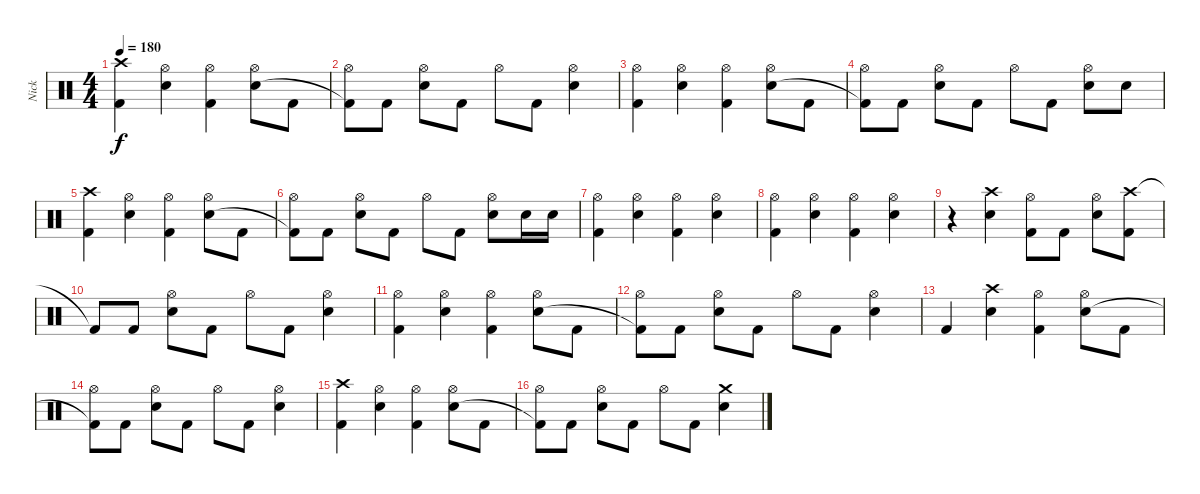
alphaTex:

\track ("Nick" "Nick") {instrument percussion}
\staff {score}
\articulation defaults
\ts (4 4)
\tempo 180
\clef neutral
\ks c
("Crash high (hit)" "Kick (hit) 2").4{dy f} ("Hi-Hat (open)" "Snare (hit) 2").4 ("Hi-Hat (open)" "Kick (hit) 2").4 ("Hi-Hat (open)" "Snare (hit) 2").8 "Kick (hit) 2".8 |
("Hi-Hat (open)" "Kick (hit) 2"{t}).8 "Kick (hit) 2".8 ("Hi-Hat (open)" "Snare (hit) 2").8 "Kick (hit) 2".8 "Hi-Hat (open)".8 "Kick (hit) 2".8 ("Hi-Hat (open)" "Snare (hit) 2").4 |
("Hi-Hat (open)" "Kick (hit) 2").4 ("Hi-Hat (open)" "Snare (hit) 2").4 ("Hi-Hat (open)" "Kick (hit) 2").4 ("Hi-Hat (open)" "Snare (hit) 2").8 "Kick (hit) 2".8 |
("Hi-Hat (open)" "Kick (hit) 2"{t}).8 "Kick (hit) 2".8 ("Hi-Hat (open)" "Snare (hit) 2").8 "Kick (hit) 2".8 "Hi-Hat (open)".8 "Kick (hit) 2".8 ("Hi-Hat (open)" "Snare (hit) 2").8 "Snare (hit) 2".8 |
("Crash high (hit)" "Kick (hit) 2").4 ("Hi-Hat (open)" "Snare (hit) 2").4 ("Hi-Hat (open)" "Kick (hit) 2").4 ("Hi-Hat (open)" "Snare (hit) 2").8 "Kick (hit) 2".8 |
("Hi-Hat (open)" "Kick (hit) 2"{t}).8 "Kick (hit) 2".8 ("Hi-Hat (open)" "Snare (hit) 2").8 "Kick (hit) 2".8 "Hi-Hat (open)".8 "Kick (hit) 2".8 ("Hi-Hat (open)" "Snare (hit) 2").8 "Snare (hit) 2".16 "Snare (hit) 2".16 |
("Hi-Hat (open)" "Kick (hit) 2").4 ("Hi-Hat (open)" "Snare (hit) 2").4 ("Hi-Hat (open)" "Kick (hit) 2").4 ("Hi-Hat (open)" "Snare (hit) 2").4 |
("Hi-Hat (open)" "Kick (hit) 2").4 ("Hi-Hat (open)" "Snare (hit) 2").4 ("Hi-Hat (open)" "Kick (hit) 2").4 ("Hi-Hat (open)" "Snare (hit) 2").4 |
r.4 ("Crash high (hit)" "Snare (hit) 2").4 ("Hi-Hat (open)" "Kick (hit) 2").8 "Kick (hit) 2".8 ("Hi-Hat (open)" "Snare (hit) 2").8 ("Crash high (hit)" "Kick (hit) 2").8 |
"Kick (hit) 2"{t}.8 "Kick (hit) 2".8 ("Hi-Hat (open)" "Snare (hit) 2").8 "Kick (hit) 2".8 "Hi-Hat (open)".8 "Kick (hit) 2".8 ("Hi-Hat (open)" "Snare (hit) 2").4 |
("Hi-Hat (open)" "Kick (hit) 2").4 ("Hi-Hat (open)" "Snare (hit) 2").4 ("Hi-Hat (open)" "Kick (hit) 2").4 ("Hi-Hat (open)" "Snare (hit) 2").8 "Kick (hit) 2".8 |
("Hi-Hat (open)" "Kick (hit) 2"{t}).8 "Kick (hit) 2".8 ("Hi-Hat (open)" "Snare (hit) 2").8 "Kick (hit) 2".8 "Hi-Hat (open)".8 "Kick (hit) 2".8 ("Hi-Hat (open)" "Snare (hit) 2").4 |
"Kick (hit) 2".4 ("Crash high (hit)" "Snare (hit) 2").4 ("Hi-Hat (open)" "Kick (hit) 2").4 ("Hi-Hat (open)" "Snare (hit) 2").8 "Kick (hit) 2".8 |
("Hi-Hat (open)" "Kick (hit) 2"{t}).8 "Kick (hit) 2".8 ("Hi-Hat (open)" "Snare (hit) 2").8 "Kick (hit) 2".8 "Hi-Hat (open)".8 "Kick (hit) 2".8 ("Hi-Hat (open)" "Snare (hit) 2").4 |
("Crash high (hit)" "Kick (hit) 2").4 ("Hi-Hat (open)" "Snare (hit) 2").4 ("Hi-Hat (open)" "Kick (hit) 2").4 ("Hi-Hat (open)" "Snare (hit) 2").8 "Kick (hit) 2".8 |
("Hi-Hat (open)" "Kick (hit) 2"{t}).8 "Kick (hit) 2".8 ("Hi-Hat (open)" "Snare (hit) 2").8 "Kick (hit) 2".8 "Hi-Hat (open)".8 "Kick (hit) 2".8 ("Crash medium (hit)" "Snare (hit) 2").4
